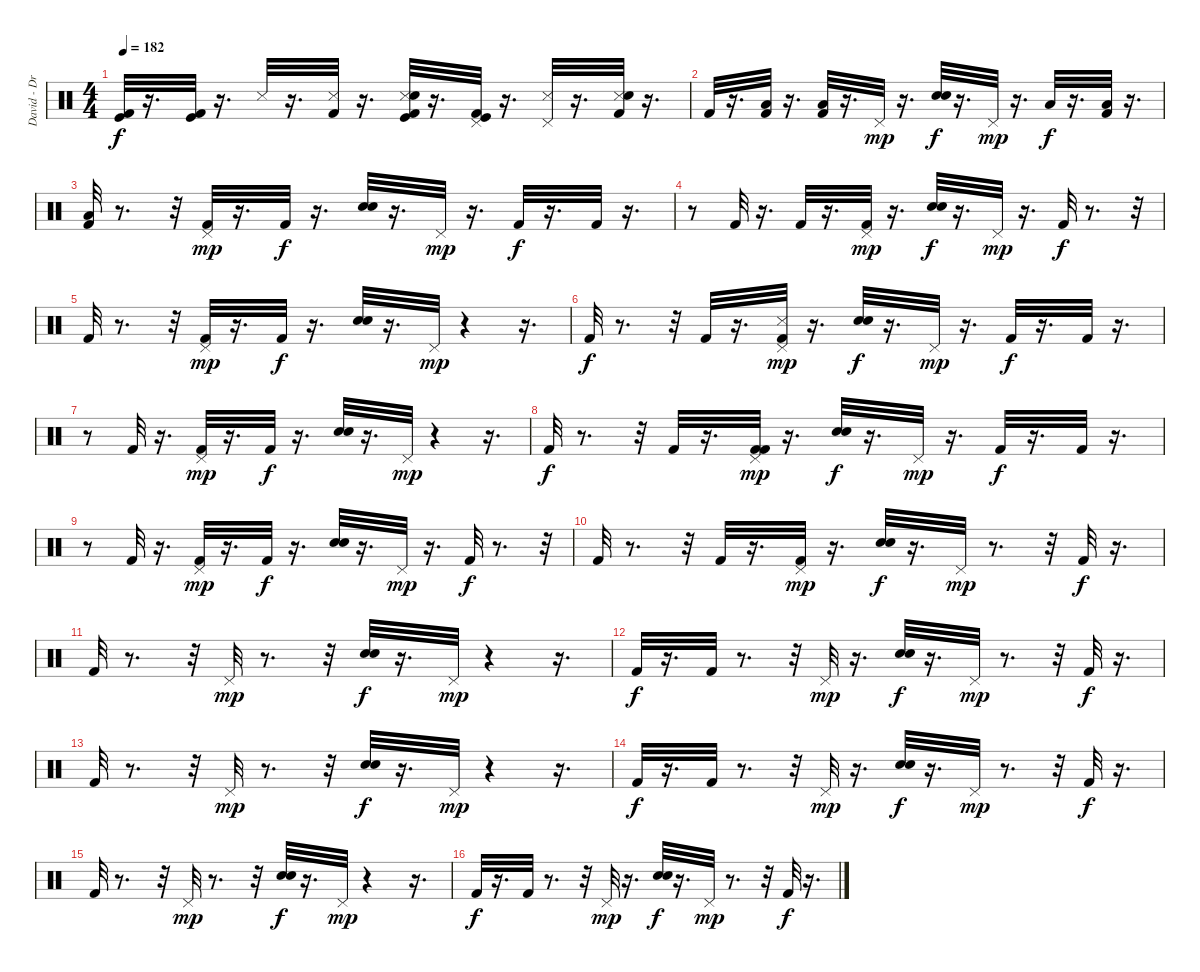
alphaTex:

\track ("David - Drums" "David - Dr") {instrument percussion}
\staff {score}
\articulation defaults
\ts (4 4)
\tempo 182
\clef neutral
\ks c
("Kick (hit) 2" "Kick (hit)").32{dy f} r.16{d} ("Kick (hit)" "Kick (hit) 2").32 r.16{d} "Snare (side stick) 3".32 r.16{d} ("Kick (hit) 2" "Snare (side stick) 3").32 r.16{d} ("Snare (side stick) 3" "Snare (hit) 2" "Kick (hit) 2" "Kick (hit)").32 r.16{d} ("Pedal Hi-Hat (hit)" "Kick (hit)" "Kick (hit) 2").32 r.16{d} ("Pedal Hi-Hat (hit)" "Snare (side stick) 3").32 r.16{d} ("Kick (hit) 2" "Snare (side stick) 3" "Snare (hit) 2").32 r.16{d} |
"Kick (hit) 2".32 r.16{d} ("Low Floor Tom (hit)" "Kick (hit) 2").32 r.16{d} ("Kick (hit) 2" "Low Floor Tom (hit)").32 r.16{d} "Pedal Hi-Hat (hit)".32{dy mp} r.16{d} ("Electric Snare (hit)" "Snare (hit) 2").32{dy f} r.16{d} "Pedal Hi-Hat (hit)".32{dy mp} r.16{d} "Low Floor Tom (hit)".32{dy f} r.16{d} ("Low Floor Tom (hit)" "Kick (hit) 2").32 r.16{d} |
("Low Tom (hit)" "Kick (hit) 2").32 r.8{d} r.32 ("Kick (hit) 2" "Pedal Hi-Hat (hit)").32{dy mp} r.16{d} "Kick (hit) 2".32{dy f} r.16{d} ("Snare (hit) 2" "Electric Snare (hit)").32 r.16{d} "Pedal Hi-Hat (hit)".32{dy mp} r.16{d} "Kick (hit) 2".32{dy f} r.16{d} "Kick (hit) 2".32 r.16{d} |
r.8 "Kick (hit) 2".32 r.16{d} "Kick (hit) 2".32 r.16{d} ("Kick (hit) 2" "Pedal Hi-Hat (hit)").32{dy mp} r.16{d} ("Electric Snare (hit)" "Snare (hit) 2").32{dy f} r.16{d} "Pedal Hi-Hat (hit)".32{dy mp} r.16{d} "Kick (hit) 2".32{dy f} r.8{d} r.32 |
"Kick (hit) 2".32 r.8{d} r.32 ("Kick (hit) 2" "Pedal Hi-Hat (hit)").32{dy mp} r.16{d} "Kick (hit) 2".32{dy f} r.16{d} ("Snare (hit) 2" "Electric Snare (hit)").32 r.16{d} "Pedal Hi-Hat (hit)".32{dy mp} r.4 r.16{d} |
"Kick (hit) 2".32{dy f} r.8{d} r.32 "Kick (hit) 2".32 r.16{d} ("Snare (side stick) 3" "Pedal Hi-Hat (hit)" "Kick (hit) 2").32{dy mp} r.16{d} ("Electric Snare (hit)" "Snare (hit) 2").32{dy f} r.16{d} "Pedal Hi-Hat (hit)".32{dy mp} r.16{d} "Kick (hit) 2".32{dy f} r.16{d} "Kick (hit) 2".32 r.16{d} |
r.8 "Kick (hit) 2".32 r.16{d} ("Pedal Hi-Hat (hit)" "Kick (hit) 2").32{dy mp} r.16{d} "Kick (hit) 2".32{dy f} r.16{d} ("Snare (hit) 2" "Electric Snare (hit)").32 r.16{d} "Pedal Hi-Hat (hit)".32{dy mp} r.4 r.16{d} |
"Kick (hit) 2".32{dy f} r.8{d} r.32 "Kick (hit) 2".32 r.16{d} ("Kick (hit) 2" "Kick (hit) 2" "Pedal Hi-Hat (hit)").32{dy mp} r.16{d} ("Electric Snare (hit)" "Snare (hit) 2").32{dy f} r.16{d} "Pedal Hi-Hat (hit)".32{dy mp} r.16{d} "Kick (hit) 2".32{dy f} r.16{d} "Kick (hit) 2".32 r.16{d} |
r.8 "Kick (hit) 2".32 r.16{d} ("Kick (hit) 2" "Pedal Hi-Hat (hit)").32{dy mp} r.16{d} "Kick (hit) 2".32{dy f} r.16{d} ("Snare (hit) 2" "Electric Snare (hit)").32 r.16{d} "Pedal Hi-Hat (hit)".32{dy mp} r.16{d} "Kick (hit) 2".32{dy f} r.8{d} r.32 |
"Kick (hit) 2".32 r.8{d} r.32 "Kick (hit) 2".32 r.16{d} ("Kick (hit) 2" "Pedal Hi-Hat (hit)").32{dy mp} r.16{d} ("Electric Snare (hit)" "Snare (hit) 2").32{dy f} r.16{d} "Pedal Hi-Hat (hit)".32{dy mp} r.8{d} r.32 "Kick (hit) 2".32{dy f} r.16{d} |
"Kick (hit) 2".32 r.8{d} r.32 "Pedal Hi-Hat (hit)".32{dy mp} r.8{d} r.32 ("Snare (hit) 2" "Electric Snare (hit)").32{dy f} r.16{d} "Pedal Hi-Hat (hit)".32{dy mp} r.4 r.16{d} |
"Kick (hit) 2".32{dy f} r.16{d} "Kick (hit) 2".32 r.8{d} r.32 "Pedal Hi-Hat (hit)".32{dy mp} r.16{d} ("Electric Snare (hit)" "Snare (hit) 2").32{dy f} r.16{d} "Pedal Hi-Hat (hit)".32{dy mp} r.8{d} r.32 "Kick (hit) 2".32{dy f} r.16{d} |
"Kick (hit) 2".32 r.8{d} r.32 "Pedal Hi-Hat (hit)".32{dy mp} r.8{d} r.32 ("Snare (hit) 2" "Electric Snare (hit)").32{dy f} r.16{d} "Pedal Hi-Hat (hit)".32{dy mp} r.4 r.16{d} |
"Kick (hit) 2".32{dy f} r.16{d} "Kick (hit) 2".32 r.8{d} r.32 "Pedal Hi-Hat (hit)".32{dy mp} r.16{d} ("Electric Snare (hit)" "Snare (hit) 2").32{dy f} r.16{d} "Pedal Hi-Hat (hit)".32{dy mp} r.8{d} r.32 "Kick (hit) 2".32{dy f} r.16{d} |
"Kick (hit) 2".32 r.8{d} r.32 "Pedal Hi-Hat (hit)".32{dy mp} r.8{d} r.32 ("Snare (hit) 2" "Electric Snare (hit)").32{dy f} r.16{d} "Pedal Hi-Hat (hit)".32{dy mp} r.4 r.16{d} |
"Kick (hit) 2".32{dy f} r.16{d} "Kick (hit) 2".32 r.8{d} r.32 "Pedal Hi-Hat (hit)".32{dy mp} r.16{d} ("Electric Snare (hit)" "Snare (hit) 2").32{dy f} r.16{d} "Pedal Hi-Hat (hit)".32{dy mp} r.8{d} r.32 "Kick (hit) 2".32{dy f} r.16{d}
